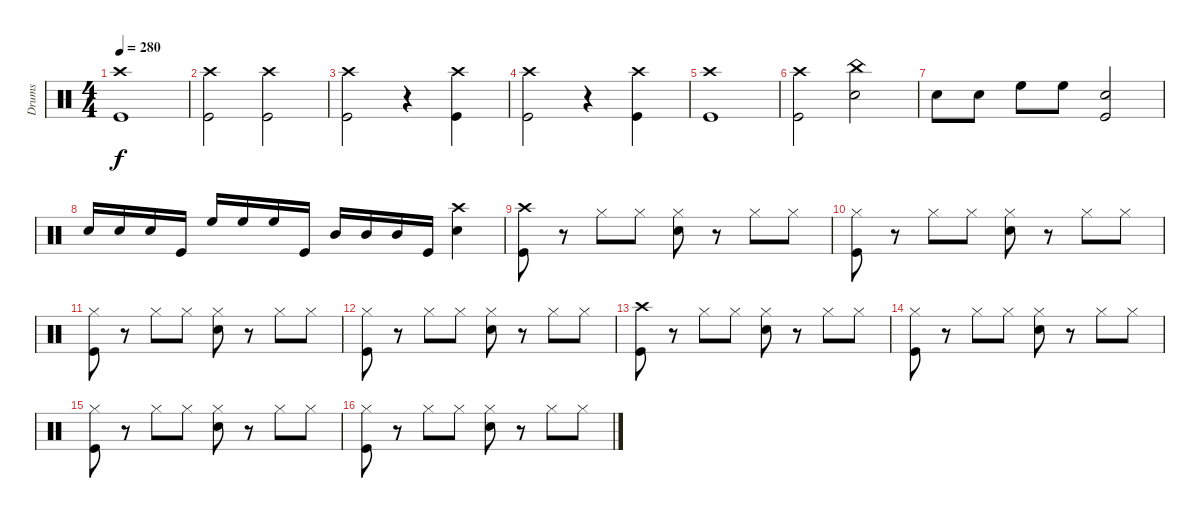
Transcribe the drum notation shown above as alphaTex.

\track ("Drums" "Drums") {instrument percussion}
\staff {score}
\articulation defaults
\ts (4 4)
\tempo 280
\clef neutral
\ks c
("Crash high (hit)" "Kick (hit)").1{dy f} |
("Crash high (hit)" "Kick (hit)").2 ("Crash high (hit)" "Kick (hit)").2 |
("Crash high (hit)" "Kick (hit)").2 r.4 ("Crash high (hit)" "Kick (hit)").4 |
("Crash high (hit)" "Kick (hit)").2 r.4 ("Crash high (hit)" "Kick (hit)").4 |
("Crash high (hit)" "Kick (hit)").1 |
("Crash high (hit)" "Kick (hit)").2 ("China (hit)" "Electric Snare (hit)").2 |
"Electric Snare (hit)".8 "Electric Snare (hit)".8 "High Floor Tom (hit)".8 "High Floor Tom (hit)".8 ("Electric Snare (hit)" "Kick (hit)").2 |
"Electric Snare (hit)".16 "Electric Snare (hit)".16 "Electric Snare (hit)".16 "Kick (hit)".16 "High Floor Tom (hit)".16 "High Floor Tom (hit)".16 "High Floor Tom (hit)".16 "Kick (hit)".16 "Mid Tom (hit)".16 "Mid Tom (hit)".16 "Mid Tom (hit)".16 "Kick (hit)".16 ("Crash high (hit)" "Electric Snare (hit)").4 |
("Crash high (hit)" "Kick (hit)").8 r.8 "Hi-Hat (closed)".8 "Hi-Hat (closed)".8 ("Hi-Hat (closed)" "Electric Snare (hit)").8 r.8 "Hi-Hat (closed)".8 "Hi-Hat (closed)".8 |
("Hi-Hat (closed)" "Kick (hit)").8 r.8 "Hi-Hat (closed)".8 "Hi-Hat (closed)".8 ("Hi-Hat (closed)" "Electric Snare (hit)").8 r.8 "Hi-Hat (closed)".8 "Hi-Hat (closed)".8 |
("Hi-Hat (closed)" "Kick (hit)").8 r.8 "Hi-Hat (closed)".8 "Hi-Hat (closed)".8 ("Hi-Hat (closed)" "Electric Snare (hit)").8 r.8 "Hi-Hat (closed)".8 "Hi-Hat (closed)".8 |
("Hi-Hat (closed)" "Kick (hit)").8 r.8 "Hi-Hat (closed)".8 "Hi-Hat (closed)".8 ("Hi-Hat (closed)" "Electric Snare (hit)").8 r.8 "Hi-Hat (closed)".8 "Hi-Hat (closed)".8 |
("Crash high (hit)" "Kick (hit)").8 r.8 "Hi-Hat (closed)".8 "Hi-Hat (closed)".8 ("Hi-Hat (closed)" "Electric Snare (hit)").8 r.8 "Hi-Hat (closed)".8 "Hi-Hat (closed)".8 |
("Hi-Hat (closed)" "Kick (hit)").8 r.8 "Hi-Hat (closed)".8 "Hi-Hat (closed)".8 ("Hi-Hat (closed)" "Electric Snare (hit)").8 r.8 "Hi-Hat (closed)".8 "Hi-Hat (closed)".8 |
("Hi-Hat (closed)" "Kick (hit)").8 r.8 "Hi-Hat (closed)".8 "Hi-Hat (closed)".8 ("Hi-Hat (closed)" "Electric Snare (hit)").8 r.8 "Hi-Hat (closed)".8 "Hi-Hat (closed)".8 |
("Hi-Hat (closed)" "Kick (hit)").8 r.8 "Hi-Hat (closed)".8 "Hi-Hat (closed)".8 ("Hi-Hat (closed)" "Electric Snare (hit)").8 r.8 "Hi-Hat (closed)".8 "Hi-Hat (closed)".8
